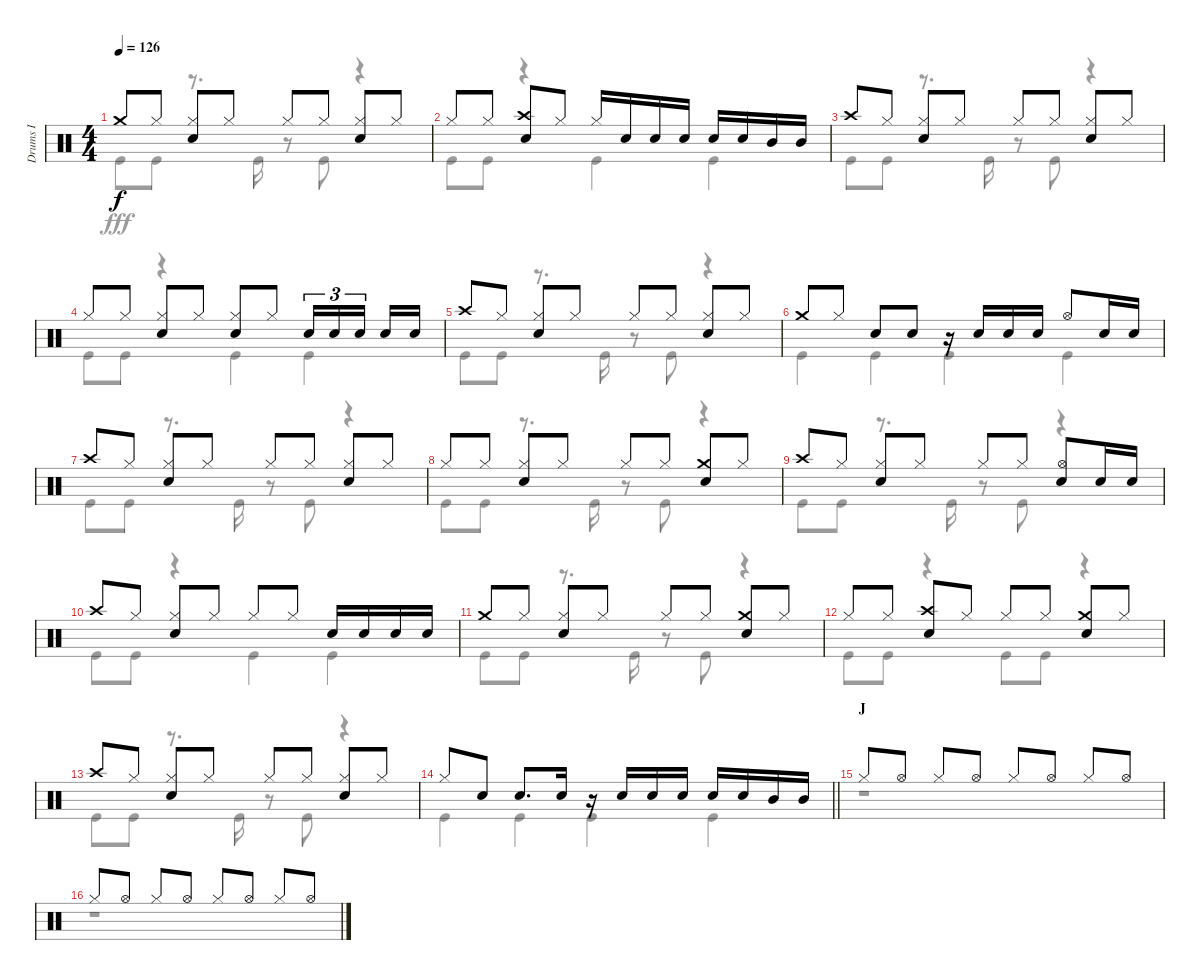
\track ("Drums I" "Drums I") {instrument percussion}
\staff {score}
\articulation defaults
\voice
\ts (4 4)
\tempo 126
\clef neutral
\ks c "Crash medium (hit)".8{dy f} "Hi-Hat (closed)".8
("Hi-Hat (closed)" "Snare (hit) 2").8 "Hi-Hat (closed)".8 "Hi-Hat (closed)".8 "Hi-Hat (closed)".8 ("Hi-Hat (closed)" "Snare (hit) 2").8 "Hi-Hat (closed)".8 |
"Hi-Hat (closed)".8 "Hi-Hat (closed)".8 ("Crash high (hit)" "Snare (hit) 2").8 "Hi-Hat (closed)".8 "Hi-Hat (closed)".16 "Snare (hit) 2".16 "Snare (hit) 2".16 "Snare (hit) 2".16 "Snare (hit) 2".16 "Snare (hit) 2".16 "Mid Tom (hit)".16 "Mid Tom (hit)".16 |
"Crash high (hit)".8 "Hi-Hat (closed)".8 ("Hi-Hat (closed)" "Snare (hit) 2").8 "Hi-Hat (closed)".8 "Hi-Hat (closed)".8 "Hi-Hat (closed)".8 ("Hi-Hat (closed)" "Snare (hit) 2").8 "Hi-Hat (closed)".8 |
"Hi-Hat (closed)".8 "Hi-Hat (closed)".8 ("Hi-Hat (closed)" "Snare (hit) 2").8 "Hi-Hat (closed)".8 ("Hi-Hat (closed)" "Snare (hit) 2").8 "Hi-Hat (closed)".8 "Snare (hit) 2".16{tu (3 2)} "Snare (hit) 2".16{tu (3 2)} "Snare (hit) 2".16{tu (3 2) beam splitsecondary} "Snare (hit) 2".16 "Snare (hit) 2".16 |
"Crash high (hit)".8 "Hi-Hat (closed)".8 ("Hi-Hat (closed)" "Snare (hit) 2").8 "Hi-Hat (closed)".8 "Hi-Hat (closed)".8 "Hi-Hat (closed)".8 ("Hi-Hat (closed)" "Snare (hit) 2").8 "Hi-Hat (closed)".8 |
"Crash medium (hit)".8 "Hi-Hat (closed)".8 "Snare (hit) 2".8 "Snare (hit) 2".8 r.16 "Snare (hit) 2".16 "Snare (hit) 2".16 "Snare (hit) 2".16 "Hi-Hat (open)".8 "Snare (hit) 2".16 "Snare (hit) 2".16 |
"Crash high (hit)".8 "Hi-Hat (closed)".8 ("Hi-Hat (closed)" "Snare (hit) 2").8 "Hi-Hat (closed)".8 "Hi-Hat (closed)".8 "Hi-Hat (closed)".8 ("Hi-Hat (closed)" "Snare (hit) 2").8 "Hi-Hat (closed)".8 |
"Hi-Hat (closed)".8 "Hi-Hat (closed)".8 ("Hi-Hat (closed)" "Snare (hit) 2").8 "Hi-Hat (closed)".8 "Hi-Hat (closed)".8 "Hi-Hat (closed)".8 ("Crash medium (hit)" "Snare (hit) 2").8 "Hi-Hat (closed)".8 |
"Crash high (hit)".8 "Hi-Hat (closed)".8 ("Hi-Hat (closed)" "Snare (hit) 2").8 "Hi-Hat (closed)".8 "Hi-Hat (closed)".8 "Hi-Hat (closed)".8 ("Hi-Hat (open)" "Snare (hit) 2").8 "Snare (hit) 2".16 "Snare (hit) 2".16 |
"Crash high (hit)".8 "Hi-Hat (closed)".8 ("Hi-Hat (closed)" "Snare (hit) 2").8 "Hi-Hat (closed)".8 "Hi-Hat (closed)".8 "Hi-Hat (closed)".8 "Snare (hit) 2".16 "Snare (hit) 2".16 "Snare (hit) 2".16 "Snare (hit) 2".16 |
"Crash medium (hit)".8 "Hi-Hat (closed)".8 ("Hi-Hat (closed)" "Snare (hit) 2").8 "Hi-Hat (closed)".8 "Hi-Hat (closed)".8 "Hi-Hat (closed)".8 ("Crash medium (hit)" "Snare (hit) 2").8 "Hi-Hat (closed)".8 |
"Hi-Hat (closed)".8 "Hi-Hat (closed)".8 ("Crash high (hit)" "Snare (hit) 2").8 "Hi-Hat (closed)".8 "Hi-Hat (closed)".8 "Hi-Hat (closed)".8 ("Crash medium (hit)" "Snare (hit) 2").8 "Hi-Hat (closed)".8 |
"Crash high (hit)".8 "Hi-Hat (closed)".8 ("Hi-Hat (closed)" "Snare (hit) 2").8 "Hi-Hat (closed)".8 "Hi-Hat (closed)".8 "Hi-Hat (closed)".8 ("Hi-Hat (closed)" "Snare (hit) 2").8 "Hi-Hat (closed)".8 |
\barLineRight lightlight "Hi-Hat (closed)".8 "Snare (hit) 2".8 "Snare (hit) 2".8{d} "Snare (hit) 2".16
r.16 "Snare (hit) 2".16 "Snare (hit) 2".16 "Snare (hit) 2".16 "Snare (hit) 2".16 "Snare (hit) 2".16 "Mid Tom (hit)".16 "Mid Tom (hit)".16 |
\section ("" "J")
"Hi-Hat (closed)".8 "Hi-Hat (open)".8 "Hi-Hat (closed)".8 "Hi-Hat (open)".8 "Hi-Hat (closed)".8 "Hi-Hat (open)".8 "Hi-Hat (closed)".8 "Hi-Hat (open)".8 |
"Hi-Hat (closed)".8 "Hi-Hat (open)".8 "Hi-Hat (closed)".8 "Hi-Hat (open)".8 "Hi-Hat (closed)".8 "Hi-Hat (open)".8 "Hi-Hat (closed)".8 "Hi-Hat (open)".8
\voice
\clef neutral
\ottava regular
\simile none
\ks c "Kick (hit)".8{dy fff} "Kick (hit)".8
r.8{d} "Kick (hit)".16 r.8 "Kick (hit)".8 r.4 |
"Kick (hit)".8 "Kick (hit)".8 r.4 "Kick (hit)".4 "Kick (hit)".4 |
"Kick (hit)".8 "Kick (hit)".8 r.8{d} "Kick (hit)".16 r.8 "Kick (hit)".8 r.4 |
"Kick (hit)".8 "Kick (hit)".8 r.4 "Kick (hit)".4 "Kick (hit)".4 |
"Kick (hit)".8 "Kick (hit)".8 r.8{d} "Kick (hit)".16 r.8 "Kick (hit)".8 r.4 |
"Kick (hit)".4 "Kick (hit)".4 "Kick (hit)".4 "Kick (hit)".4 |
"Kick (hit)".8 "Kick (hit)".8 r.8{d} "Kick (hit)".16 r.8 "Kick (hit)".8 r.4 |
"Kick (hit)".8 "Kick (hit)".8 r.8{d} "Kick (hit)".16 r.8 "Kick (hit)".8 r.4 |
"Kick (hit)".8 "Kick (hit)".8 r.8{d} "Kick (hit)".16 r.8 "Kick (hit)".8 r.4 |
"Kick (hit)".8 "Kick (hit)".8 r.4 "Kick (hit)".4 "Kick (hit)".4 |
"Kick (hit)".8 "Kick (hit)".8 r.8{d} "Kick (hit)".16 r.8 "Kick (hit)".8 r.4 |
"Kick (hit)".8 "Kick (hit)".8 r.4 "Kick (hit)".8 "Kick (hit)".8 r.4 |
"Kick (hit)".8 "Kick (hit)".8 r.8{d} "Kick (hit)".16 r.8 "Kick (hit)".8 r.4 |
\barLineRight lightlight "Kick (hit)".4 "Kick (hit)".4 "Kick (hit)".4 "Kick (hit)".4
|
r.1 |
r.1
